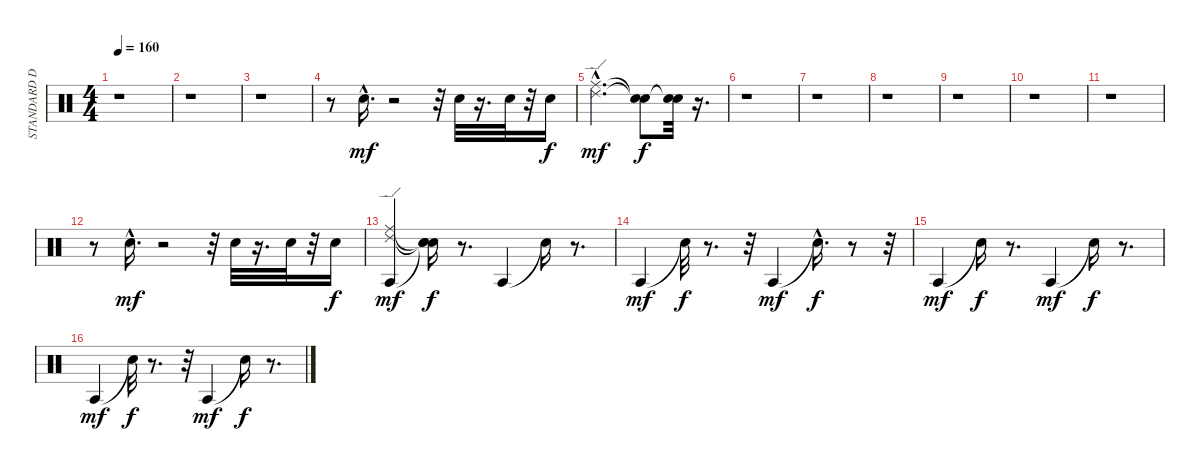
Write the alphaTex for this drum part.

\track ("STANDARD DRUMS" "STANDARD D") {instrument percussion}
\staff {score}
\articulation defaults
\ts (4 4)
\tempo 160
\clef neutral
\ks c
r.1{dy f} |
r.1 |
r.1 |
r.8 "Electric Snare (hit)"{hac}.16{d dy mf} r.2 r.32 "Electric Snare (hit)".32 r.16{d} "Electric Snare (hit)".32 r.32 "Electric Snare (hit)".16{dy f} |
("Ride (edge) 2"{hac} "Ride (middle)"{hac}).2{d dy mf} ("Snare (hit)"{t} "Snare (hit)"{t}).8{dy f} ("Snare (hit)"{t} "Snare (hit)"{t}).32 r.16{d} |
r.1 |
r.1 |
r.1 |
r.1 |
r.1 |
r.1 |
r.8 "Electric Snare (hit)"{hac}.16{d dy mf} r.2 r.32 "Electric Snare (hit)".32 r.16{d} "Electric Snare (hit)".32 r.32 "Electric Snare (hit)".16{dy f} |
("Ride (middle)" "Agogo tow (hit)" "Ride (edge) 2").4{dy mf} ("Snare (hit)"{t} "Snare (hit)"{t} "Snare (hit)"{t}).16{dy f} r.8{d} "Agogo tow (hit)".4 "Snare (hit)"{t}.16 r.8{d} |
"Agogo tow (hit)".4{dy mf} "Snare (hit)"{t}.32{dy f} r.8{d} r.32 "Agogo tow (hit)".4{dy mf} "Snare (hit)"{hac t}.16{d dy f} r.8 r.32 |
"Agogo tow (hit)".4{dy mf} "Snare (hit)"{t}.16{dy f} r.8{d} "Agogo tow (hit)".4{dy mf} "Snare (hit)"{t}.16{dy f} r.8{d} |
"Agogo tow (hit)".4{dy mf} "Snare (hit)"{t}.32{dy f} r.8{d} r.32 "Agogo tow (hit)".4{dy mf} "Snare (hit)"{t}.16{dy f} r.8{d}
